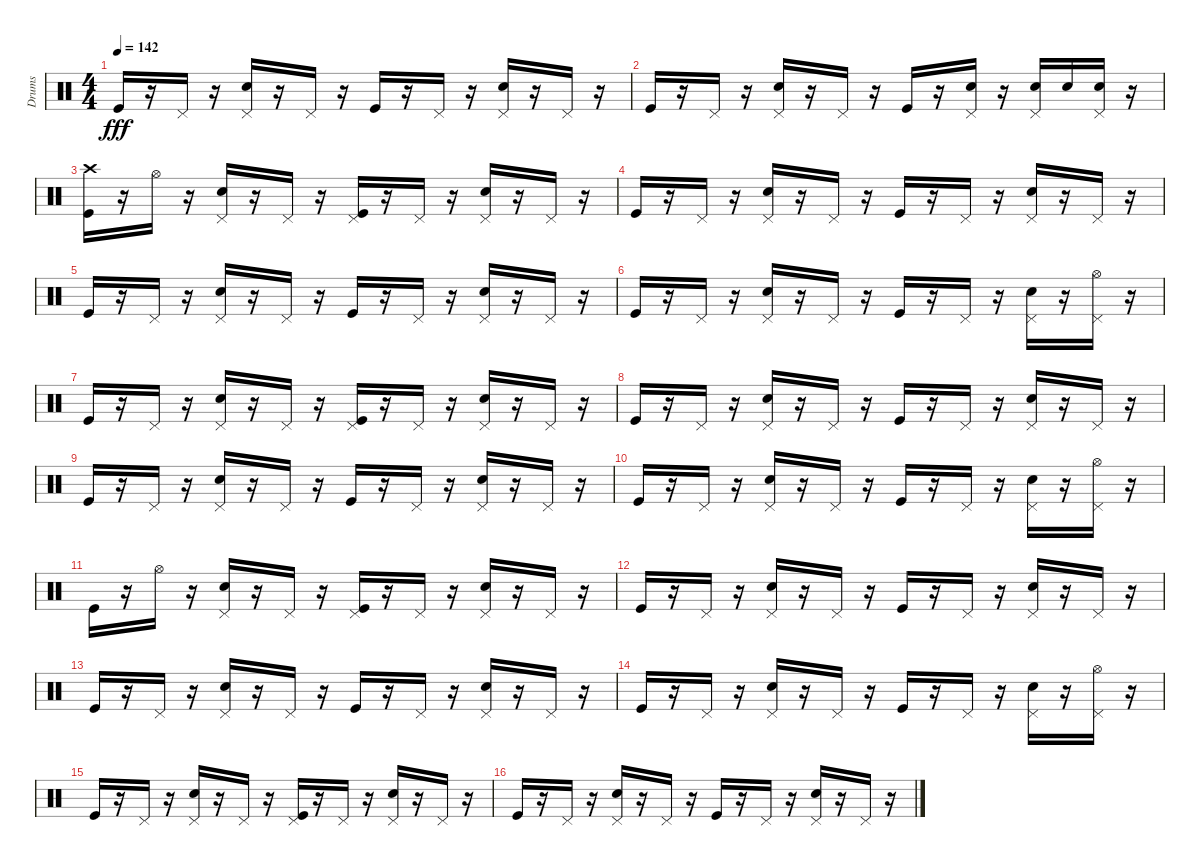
\track ("Drums" "Drums") {instrument percussion}
\staff {score}
\articulation defaults
\ts (4 4)
\tempo 142
\clef neutral
\ks c "Kick (hit)".16{dy fff}
r.16 "Pedal Hi-Hat (hit)".16 r.16 ("Snare (hit) 2" "Pedal Hi-Hat (hit)").16 r.16 "Pedal Hi-Hat (hit)".16 r.16 "Kick (hit)".16 r.16 "Pedal Hi-Hat (hit)".16 r.16 ("Snare (hit) 2" "Pedal Hi-Hat (hit)").16 r.16 "Pedal Hi-Hat (hit)".16 r.16 |
"Kick (hit)".16 r.16 "Pedal Hi-Hat (hit)".16 r.16 ("Snare (hit) 2" "Pedal Hi-Hat (hit)").16 r.16 "Pedal Hi-Hat (hit)".16 r.16 "Kick (hit)".16 r.16 ("Pedal Hi-Hat (hit)" "Snare (hit) 2").16 r.16 ("Snare (hit) 2" "Pedal Hi-Hat (hit)").16 "Snare (hit) 2".16 ("Pedal Hi-Hat (hit)" "Snare (hit) 2").16 r.16 |
("Kick (hit)" "Crash high (hit)").16 r.16 "Hi-Hat (open)".16 r.16 ("Snare (hit) 2" "Pedal Hi-Hat (hit)").16 r.16 "Pedal Hi-Hat (hit)".16 r.16 ("Kick (hit)" "Pedal Hi-Hat (hit)").16 r.16 "Pedal Hi-Hat (hit)".16 r.16 ("Snare (hit) 2" "Pedal Hi-Hat (hit)").16 r.16 "Pedal Hi-Hat (hit)".16 r.16 |
"Kick (hit)".16 r.16 "Pedal Hi-Hat (hit)".16 r.16 ("Snare (hit) 2" "Pedal Hi-Hat (hit)").16 r.16 "Pedal Hi-Hat (hit)".16 r.16 "Kick (hit)".16 r.16 "Pedal Hi-Hat (hit)".16 r.16 ("Snare (hit) 2" "Pedal Hi-Hat (hit)").16 r.16 "Pedal Hi-Hat (hit)".16 r.16 |
"Kick (hit)".16 r.16 "Pedal Hi-Hat (hit)".16 r.16 ("Snare (hit) 2" "Pedal Hi-Hat (hit)").16 r.16 "Pedal Hi-Hat (hit)".16 r.16 "Kick (hit)".16 r.16 "Pedal Hi-Hat (hit)".16 r.16 ("Snare (hit) 2" "Pedal Hi-Hat (hit)").16 r.16 "Pedal Hi-Hat (hit)".16 r.16 |
"Kick (hit)".16 r.16 "Pedal Hi-Hat (hit)".16 r.16 ("Snare (hit) 2" "Pedal Hi-Hat (hit)").16 r.16 "Pedal Hi-Hat (hit)".16 r.16 "Kick (hit)".16 r.16 "Pedal Hi-Hat (hit)".16 r.16 ("Snare (hit) 2" "Pedal Hi-Hat (hit)").16 r.16 ("Pedal Hi-Hat (hit)" "Hi-Hat (open)").16 r.16 |
"Kick (hit)".16 r.16 "Pedal Hi-Hat (hit)".16 r.16 ("Snare (hit) 2" "Pedal Hi-Hat (hit)").16 r.16 "Pedal Hi-Hat (hit)".16 r.16 ("Kick (hit)" "Pedal Hi-Hat (hit)").16 r.16 "Pedal Hi-Hat (hit)".16 r.16 ("Snare (hit) 2" "Pedal Hi-Hat (hit)").16 r.16 "Pedal Hi-Hat (hit)".16 r.16 |
"Kick (hit)".16 r.16 "Pedal Hi-Hat (hit)".16 r.16 ("Snare (hit) 2" "Pedal Hi-Hat (hit)").16 r.16 "Pedal Hi-Hat (hit)".16 r.16 "Kick (hit)".16 r.16 "Pedal Hi-Hat (hit)".16 r.16 ("Snare (hit) 2" "Pedal Hi-Hat (hit)").16 r.16 "Pedal Hi-Hat (hit)".16 r.16 |
"Kick (hit)".16 r.16 "Pedal Hi-Hat (hit)".16 r.16 ("Snare (hit) 2" "Pedal Hi-Hat (hit)").16 r.16 "Pedal Hi-Hat (hit)".16 r.16 "Kick (hit)".16 r.16 "Pedal Hi-Hat (hit)".16 r.16 ("Snare (hit) 2" "Pedal Hi-Hat (hit)").16 r.16 "Pedal Hi-Hat (hit)".16 r.16 |
"Kick (hit)".16 r.16 "Pedal Hi-Hat (hit)".16 r.16 ("Snare (hit) 2" "Pedal Hi-Hat (hit)").16 r.16 "Pedal Hi-Hat (hit)".16 r.16 "Kick (hit)".16 r.16 "Pedal Hi-Hat (hit)".16 r.16 ("Snare (hit) 2" "Pedal Hi-Hat (hit)").16 r.16 ("Pedal Hi-Hat (hit)" "Hi-Hat (open)").16 r.16 |
"Kick (hit)".16 r.16 "Hi-Hat (open)".16 r.16 ("Snare (hit) 2" "Pedal Hi-Hat (hit)").16 r.16 "Pedal Hi-Hat (hit)".16 r.16 ("Kick (hit)" "Pedal Hi-Hat (hit)").16 r.16 "Pedal Hi-Hat (hit)".16 r.16 ("Snare (hit) 2" "Pedal Hi-Hat (hit)").16 r.16 "Pedal Hi-Hat (hit)".16 r.16 |
"Kick (hit)".16 r.16 "Pedal Hi-Hat (hit)".16 r.16 ("Snare (hit) 2" "Pedal Hi-Hat (hit)").16 r.16 "Pedal Hi-Hat (hit)".16 r.16 "Kick (hit)".16 r.16 "Pedal Hi-Hat (hit)".16 r.16 ("Snare (hit) 2" "Pedal Hi-Hat (hit)").16 r.16 "Pedal Hi-Hat (hit)".16 r.16 |
"Kick (hit)".16 r.16 "Pedal Hi-Hat (hit)".16 r.16 ("Snare (hit) 2" "Pedal Hi-Hat (hit)").16 r.16 "Pedal Hi-Hat (hit)".16 r.16 "Kick (hit)".16 r.16 "Pedal Hi-Hat (hit)".16 r.16 ("Snare (hit) 2" "Pedal Hi-Hat (hit)").16 r.16 "Pedal Hi-Hat (hit)".16 r.16 |
"Kick (hit)".16 r.16 "Pedal Hi-Hat (hit)".16 r.16 ("Snare (hit) 2" "Pedal Hi-Hat (hit)").16 r.16 "Pedal Hi-Hat (hit)".16 r.16 "Kick (hit)".16 r.16 "Pedal Hi-Hat (hit)".16 r.16 ("Snare (hit) 2" "Pedal Hi-Hat (hit)").16 r.16 ("Pedal Hi-Hat (hit)" "Hi-Hat (open)").16 r.16 |
"Kick (hit)".16 r.16 "Pedal Hi-Hat (hit)".16 r.16 ("Snare (hit) 2" "Pedal Hi-Hat (hit)").16 r.16 "Pedal Hi-Hat (hit)".16 r.16 ("Kick (hit)" "Pedal Hi-Hat (hit)").16 r.16 "Pedal Hi-Hat (hit)".16 r.16 ("Snare (hit) 2" "Pedal Hi-Hat (hit)").16 r.16 "Pedal Hi-Hat (hit)".16 r.16 |
"Kick (hit)".16 r.16 "Pedal Hi-Hat (hit)".16 r.16 ("Snare (hit) 2" "Pedal Hi-Hat (hit)").16 r.16 "Pedal Hi-Hat (hit)".16 r.16 "Kick (hit)".16 r.16 "Pedal Hi-Hat (hit)".16 r.16 ("Snare (hit) 2" "Pedal Hi-Hat (hit)").16 r.16 "Pedal Hi-Hat (hit)".16 r.16
